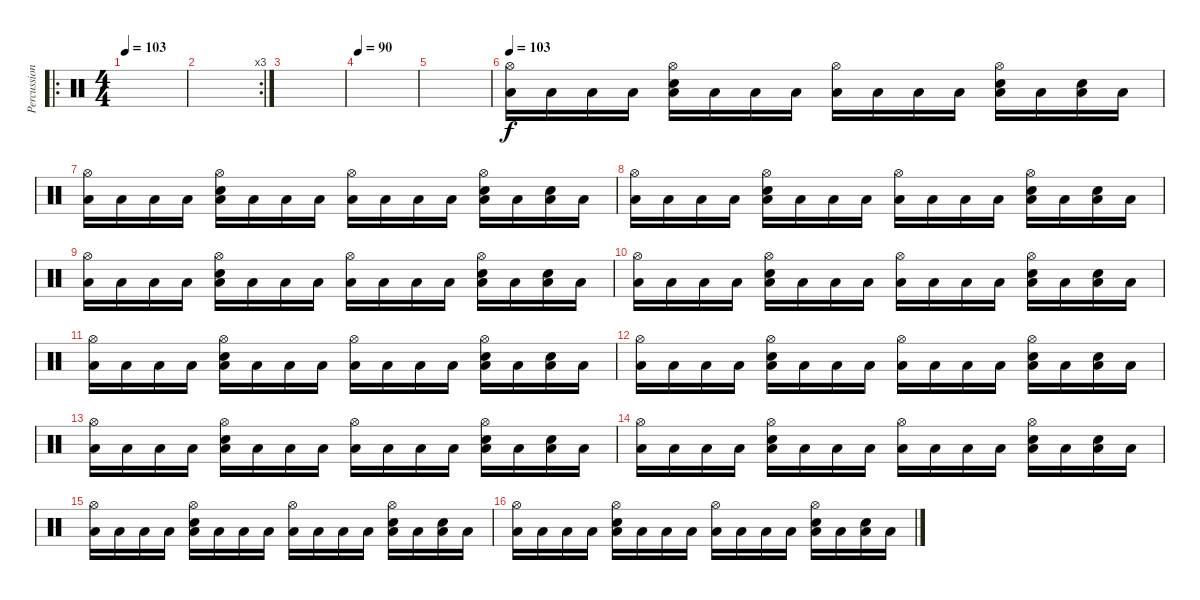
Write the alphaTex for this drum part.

\track ("Percussions" "Percussion") {instrument percussion}
\staff {score}
\articulation defaults
\ro
\ts (4 4)
\tempo 103
\clef neutral
\ks c
|
\rc 3
|
|
\tempo 90
|
|
\tempo 103
("Hi-Hat (open)" "Low Tom (hit)").16 "Low Tom (hit)".16 "Low Tom (hit)".16 "Low Tom (hit)".16 ("Hi-Hat (open)" "Snare (hit) 2" "Low Tom (hit)").16 "Low Tom (hit)".16 "Low Tom (hit)".16 "Low Tom (hit)".16 ("Hi-Hat (open)" "Low Tom (hit)").16 "Low Tom (hit)".16 "Low Tom (hit)".16 "Low Tom (hit)".16 ("Hi-Hat (open)" "Snare (hit) 2" "Low Tom (hit)").16 "Low Tom (hit)".16 ("Electric Snare (hit)" "Low Tom (hit)").16 "Low Tom (hit)".16 |
("Hi-Hat (open)" "Low Tom (hit)").16 "Low Tom (hit)".16 "Low Tom (hit)".16 "Low Tom (hit)".16 ("Hi-Hat (open)" "Snare (hit) 2" "Low Tom (hit)").16 "Low Tom (hit)".16 "Low Tom (hit)".16 "Low Tom (hit)".16 ("Hi-Hat (open)" "Low Tom (hit)").16 "Low Tom (hit)".16 "Low Tom (hit)".16 "Low Tom (hit)".16 ("Hi-Hat (open)" "Snare (hit) 2" "Low Tom (hit)").16 "Low Tom (hit)".16 ("Electric Snare (hit)" "Low Tom (hit)").16 "Low Tom (hit)".16 |
("Hi-Hat (open)" "Low Tom (hit)").16 "Low Tom (hit)".16 "Low Tom (hit)".16 "Low Tom (hit)".16 ("Hi-Hat (open)" "Snare (hit) 2" "Low Tom (hit)").16 "Low Tom (hit)".16 "Low Tom (hit)".16 "Low Tom (hit)".16 ("Hi-Hat (open)" "Low Tom (hit)").16 "Low Tom (hit)".16 "Low Tom (hit)".16 "Low Tom (hit)".16 ("Hi-Hat (open)" "Snare (hit) 2" "Low Tom (hit)").16 "Low Tom (hit)".16 ("Electric Snare (hit)" "Low Tom (hit)").16 "Low Tom (hit)".16 |
("Hi-Hat (open)" "Low Tom (hit)").16 "Low Tom (hit)".16 "Low Tom (hit)".16 "Low Tom (hit)".16 ("Hi-Hat (open)" "Snare (hit) 2" "Low Tom (hit)").16 "Low Tom (hit)".16 "Low Tom (hit)".16 "Low Tom (hit)".16 ("Hi-Hat (open)" "Low Tom (hit)").16 "Low Tom (hit)".16 "Low Tom (hit)".16 "Low Tom (hit)".16 ("Hi-Hat (open)" "Snare (hit) 2" "Low Tom (hit)").16 "Low Tom (hit)".16 ("Electric Snare (hit)" "Low Tom (hit)").16 "Low Tom (hit)".16 |
("Hi-Hat (open)" "Low Tom (hit)").16 "Low Tom (hit)".16 "Low Tom (hit)".16 "Low Tom (hit)".16 ("Hi-Hat (open)" "Snare (hit) 2" "Low Tom (hit)").16 "Low Tom (hit)".16 "Low Tom (hit)".16 "Low Tom (hit)".16 ("Hi-Hat (open)" "Low Tom (hit)").16 "Low Tom (hit)".16 "Low Tom (hit)".16 "Low Tom (hit)".16 ("Hi-Hat (open)" "Snare (hit) 2" "Low Tom (hit)").16 "Low Tom (hit)".16 ("Electric Snare (hit)" "Low Tom (hit)").16 "Low Tom (hit)".16 |
("Hi-Hat (open)" "Low Tom (hit)").16 "Low Tom (hit)".16 "Low Tom (hit)".16 "Low Tom (hit)".16 ("Hi-Hat (open)" "Snare (hit) 2" "Low Tom (hit)").16 "Low Tom (hit)".16 "Low Tom (hit)".16 "Low Tom (hit)".16 ("Hi-Hat (open)" "Low Tom (hit)").16 "Low Tom (hit)".16 "Low Tom (hit)".16 "Low Tom (hit)".16 ("Hi-Hat (open)" "Snare (hit) 2" "Low Tom (hit)").16 "Low Tom (hit)".16 ("Electric Snare (hit)" "Low Tom (hit)").16 "Low Tom (hit)".16 |
("Hi-Hat (open)" "Low Tom (hit)").16 "Low Tom (hit)".16 "Low Tom (hit)".16 "Low Tom (hit)".16 ("Hi-Hat (open)" "Snare (hit) 2" "Low Tom (hit)").16 "Low Tom (hit)".16 "Low Tom (hit)".16 "Low Tom (hit)".16 ("Hi-Hat (open)" "Low Tom (hit)").16 "Low Tom (hit)".16 "Low Tom (hit)".16 "Low Tom (hit)".16 ("Hi-Hat (open)" "Snare (hit) 2" "Low Tom (hit)").16 "Low Tom (hit)".16 ("Electric Snare (hit)" "Low Tom (hit)").16 "Low Tom (hit)".16 |
("Hi-Hat (open)" "Low Tom (hit)").16 "Low Tom (hit)".16 "Low Tom (hit)".16 "Low Tom (hit)".16 ("Hi-Hat (open)" "Snare (hit) 2" "Low Tom (hit)").16 "Low Tom (hit)".16 "Low Tom (hit)".16 "Low Tom (hit)".16 ("Hi-Hat (open)" "Low Tom (hit)").16 "Low Tom (hit)".16 "Low Tom (hit)".16 "Low Tom (hit)".16 ("Hi-Hat (open)" "Snare (hit) 2" "Low Tom (hit)").16 "Low Tom (hit)".16 ("Electric Snare (hit)" "Low Tom (hit)").16 "Low Tom (hit)".16 |
("Hi-Hat (open)" "Low Tom (hit)").16 "Low Tom (hit)".16 "Low Tom (hit)".16 "Low Tom (hit)".16 ("Hi-Hat (open)" "Snare (hit) 2" "Low Tom (hit)").16 "Low Tom (hit)".16 "Low Tom (hit)".16 "Low Tom (hit)".16 ("Hi-Hat (open)" "Low Tom (hit)").16 "Low Tom (hit)".16 "Low Tom (hit)".16 "Low Tom (hit)".16 ("Hi-Hat (open)" "Snare (hit) 2" "Low Tom (hit)").16 "Low Tom (hit)".16 ("Electric Snare (hit)" "Low Tom (hit)").16 "Low Tom (hit)".16 |
("Hi-Hat (open)" "Low Tom (hit)").16 "Low Tom (hit)".16 "Low Tom (hit)".16 "Low Tom (hit)".16 ("Hi-Hat (open)" "Snare (hit) 2" "Low Tom (hit)").16 "Low Tom (hit)".16 "Low Tom (hit)".16 "Low Tom (hit)".16 ("Hi-Hat (open)" "Low Tom (hit)").16 "Low Tom (hit)".16 "Low Tom (hit)".16 "Low Tom (hit)".16 ("Hi-Hat (open)" "Snare (hit) 2" "Low Tom (hit)").16 "Low Tom (hit)".16 ("Electric Snare (hit)" "Low Tom (hit)").16 "Low Tom (hit)".16 |
("Hi-Hat (open)" "Low Tom (hit)").16 "Low Tom (hit)".16 "Low Tom (hit)".16 "Low Tom (hit)".16 ("Hi-Hat (open)" "Snare (hit) 2" "Low Tom (hit)").16 "Low Tom (hit)".16 "Low Tom (hit)".16 "Low Tom (hit)".16 ("Hi-Hat (open)" "Low Tom (hit)").16 "Low Tom (hit)".16 "Low Tom (hit)".16 "Low Tom (hit)".16 ("Hi-Hat (open)" "Snare (hit) 2" "Low Tom (hit)").16 "Low Tom (hit)".16 ("Electric Snare (hit)" "Low Tom (hit)").16 "Low Tom (hit)".16
